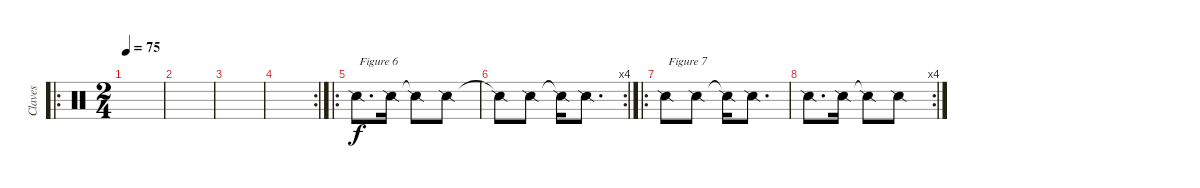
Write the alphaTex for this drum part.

\track ("Claves" "Claves") {instrument percussion}
\staff {score}
\articulation defaults
\ro
\ts (2 4)
\tempo 75
\clef neutral
\ks c
|
|
|
\rc 2
|
\ro "Snare (side stick) 2".8{d txt "Figure 6"} "Snare (side stick) 2".16 "Snare (side stick) 2"{t}.8 "Snare (side stick) 2".8
|
\rc 4 "Snare (side stick) 2"{t}.8 "Snare (side stick) 2".8 "Snare (side stick) 2"{t}.16 "Snare (side stick) 2".8{d}
|
\ro "Snare (side stick) 2".8{txt "Figure 7"} "Snare (side stick) 2".8 "Snare (side stick) 2"{t}.16 "Snare (side stick) 2".8{d}
|
\rc 4 "Snare (side stick) 2".8{d} "Snare (side stick) 2".16 "Snare (side stick) 2"{t}.8 "Snare (side stick) 2".8
